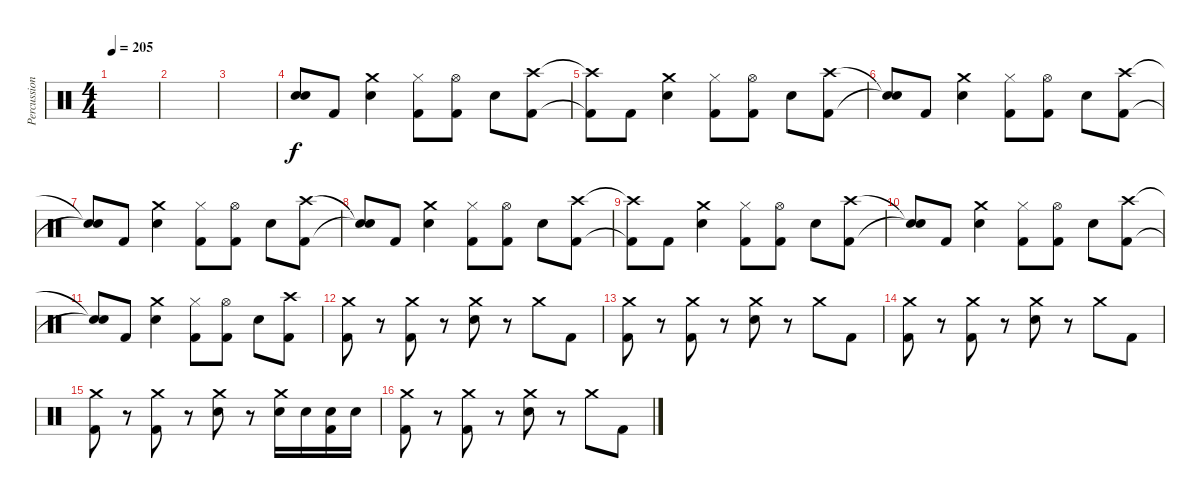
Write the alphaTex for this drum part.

\track ("Percussion" "Percussion") {instrument percussion}
\staff {score}
\articulation defaults
\ts (4 4)
\tempo 205
\clef neutral
\ks c
|
|
|
("Snare (hit)" "Snare (hit)").8 "Kick (hit) 2".8 ("Crash medium (hit)" "Electric Snare (hit)").4 ("Hi-Hat (closed)" "Kick (hit) 2").8 ("Hi-Hat (open)" "Kick (hit) 2").8 "Electric Snare (hit)".8 ("Crash high (hit)" "Kick (hit) 2").8 |
("Crash high (hit)"{t} "Kick (hit) 2"{t}).8 "Kick (hit) 2".8 ("Crash medium (hit)" "Electric Snare (hit)").4 ("Hi-Hat (closed)" "Kick (hit) 2").8 ("Hi-Hat (open)" "Kick (hit) 2").8 "Electric Snare (hit)".8 ("Crash high (hit)" "Kick (hit) 2").8 |
("Snare (hit)"{t} "Snare (hit)"{t}).8 "Kick (hit) 2".8 ("Crash medium (hit)" "Electric Snare (hit)").4 ("Hi-Hat (closed)" "Kick (hit) 2").8 ("Hi-Hat (open)" "Kick (hit) 2").8 "Electric Snare (hit)".8 ("Crash high (hit)" "Kick (hit) 2").8 |
("Snare (hit)"{t} "Snare (hit)"{t}).8 "Kick (hit) 2".8 ("Crash medium (hit)" "Electric Snare (hit)").4 ("Hi-Hat (closed)" "Kick (hit) 2").8 ("Hi-Hat (open)" "Kick (hit) 2").8 "Electric Snare (hit)".8 ("Crash high (hit)" "Kick (hit) 2").8 |
("Snare (hit)"{t} "Snare (hit)"{t}).8 "Kick (hit) 2".8 ("Crash medium (hit)" "Electric Snare (hit)").4 ("Hi-Hat (closed)" "Kick (hit) 2").8 ("Hi-Hat (open)" "Kick (hit) 2").8 "Electric Snare (hit)".8 ("Crash high (hit)" "Kick (hit) 2").8 |
("Crash high (hit)"{t} "Kick (hit) 2"{t}).8 "Kick (hit) 2".8 ("Crash medium (hit)" "Electric Snare (hit)").4 ("Hi-Hat (closed)" "Kick (hit) 2").8 ("Hi-Hat (open)" "Kick (hit) 2").8 "Electric Snare (hit)".8 ("Crash high (hit)" "Kick (hit) 2").8 |
("Snare (hit)"{t} "Snare (hit)"{t}).8 "Kick (hit) 2".8 ("Crash medium (hit)" "Electric Snare (hit)").4 ("Hi-Hat (closed)" "Kick (hit) 2").8 ("Hi-Hat (open)" "Kick (hit) 2").8 "Electric Snare (hit)".8 ("Crash high (hit)" "Kick (hit) 2").8 |
("Snare (hit)"{t} "Snare (hit)"{t}).8 "Kick (hit) 2".8 ("Crash medium (hit)" "Electric Snare (hit)").4 ("Hi-Hat (closed)" "Kick (hit) 2").8 ("Hi-Hat (open)" "Kick (hit) 2").8 "Electric Snare (hit)".8 ("Crash high (hit)" "Kick (hit) 2").8 |
("Crash medium (hit)" "Kick (hit) 2").8 r.8 ("Crash medium (hit)" "Kick (hit) 2").8 r.8 ("Crash medium (hit)" "Electric Snare (hit)").8 r.8 "Crash medium (hit)".8 "Kick (hit) 2".8 |
("Crash medium (hit)" "Kick (hit) 2").8 r.8 ("Crash medium (hit)" "Kick (hit) 2").8 r.8 ("Crash medium (hit)" "Electric Snare (hit)").8 r.8 "Crash medium (hit)".8 "Kick (hit) 2".8 |
("Crash medium (hit)" "Kick (hit) 2").8 r.8 ("Crash medium (hit)" "Kick (hit) 2").8 r.8 ("Crash medium (hit)" "Electric Snare (hit)").8 r.8 "Crash medium (hit)".8 "Kick (hit) 2".8 |
("Crash medium (hit)" "Kick (hit) 2").8 r.8 ("Crash medium (hit)" "Kick (hit) 2").8 r.8 ("Crash medium (hit)" "Electric Snare (hit)").8 r.8 ("Crash medium (hit)" "Electric Snare (hit)").16 "Electric Snare (hit)".16 ("Electric Snare (hit)" "Kick (hit) 2").16 "Electric Snare (hit)".16 |
("Crash medium (hit)" "Kick (hit) 2").8 r.8 ("Crash medium (hit)" "Kick (hit) 2").8 r.8 ("Crash medium (hit)" "Electric Snare (hit)").8 r.8 "Crash medium (hit)".8 "Kick (hit) 2".8
